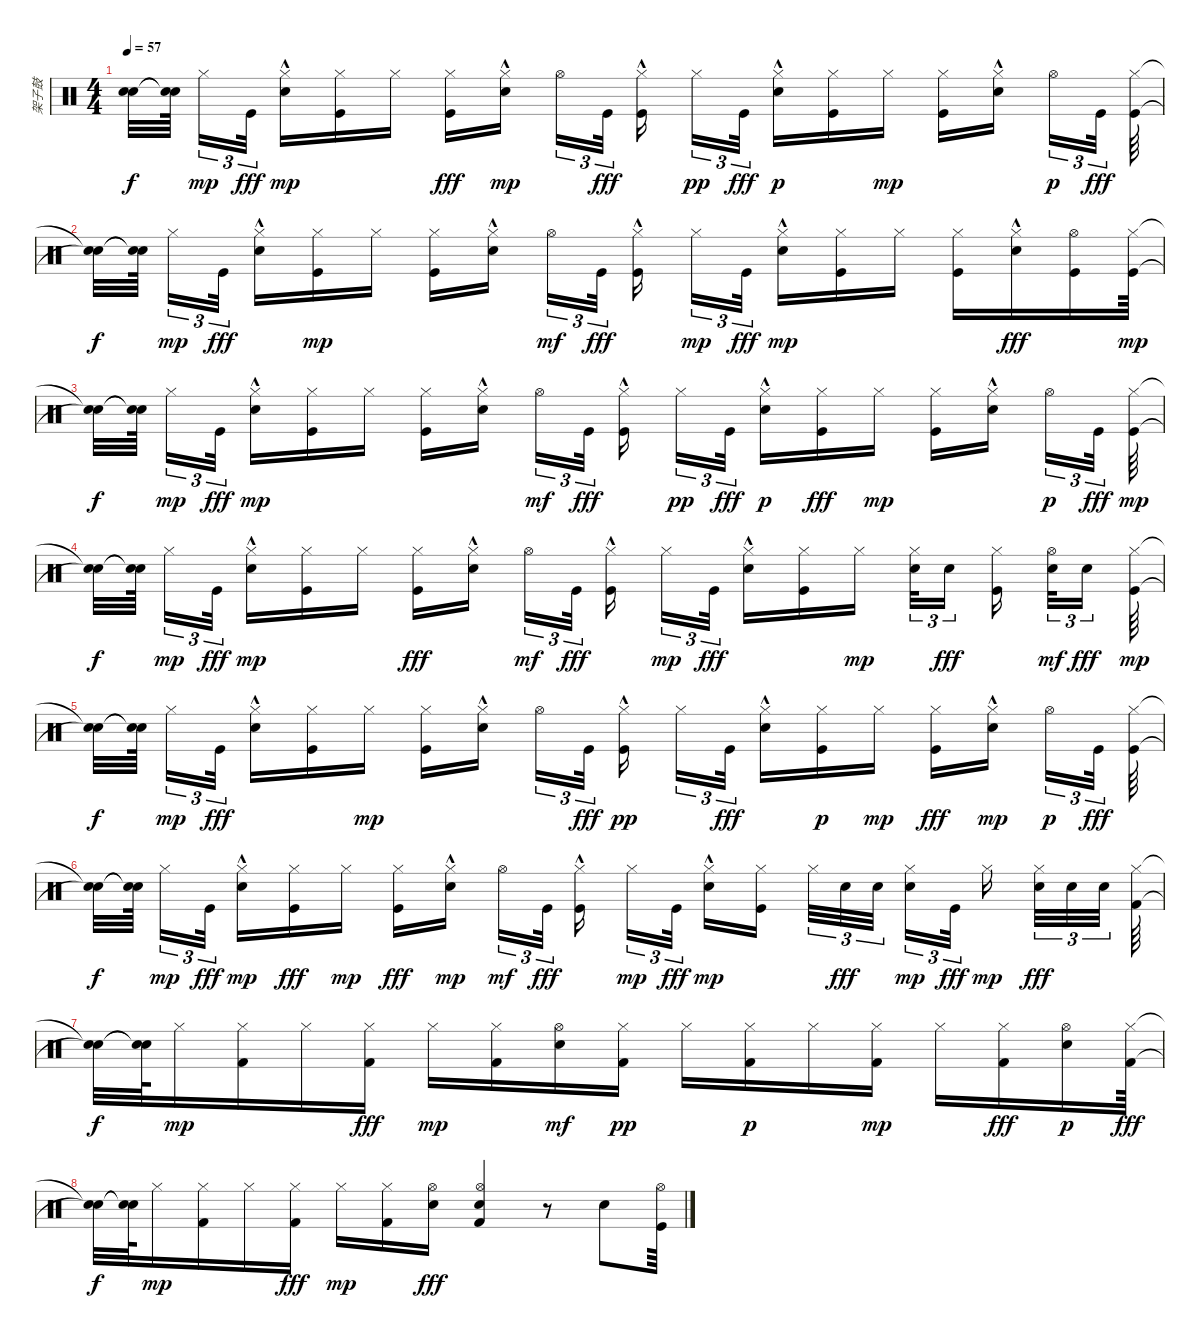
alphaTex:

\track ("架子鼓" "架子鼓") {instrument percussion}
\staff {score}
\articulation defaults
\ts (4 4)
\tempo 57
\clef neutral
\ks c
("Snare (hit)"{t} "Snare (hit)"{t}).32{dy f} ("Snare (hit)"{t} "Snare (hit)"{t}).64 "Hi-Hat (closed)".16{tu (3 2) dy mp} "Kick (hit)".32{tu (3 2) dy fff} ("Electric Snare (hit)"{hac} "Hi-Hat (closed)").16{dy mp} ("Kick (hit)" "Hi-Hat (closed)").16 "Hi-Hat (closed)".16 ("Hi-Hat (closed)" "Kick (hit)").16{dy fff} ("Electric Snare (hit)"{hac} "Hi-Hat (closed)").16{dy mp} "Hi-Hat (open)".16{tu (3 2)} "Kick (hit)".32{tu (3 2) dy fff} ("Hi-Hat (closed)" "Kick (hit)"{hac}).16 "Hi-Hat (closed)".16{tu (3 2) dy pp} "Kick (hit)".32{tu (3 2) dy fff} ("Electric Snare (hit)"{hac} "Hi-Hat (closed)").16{dy p} ("Kick (hit)" "Hi-Hat (closed)").16 "Hi-Hat (closed)".16{dy mp} ("Kick (hit)" "Hi-Hat (closed)").16 ("Electric Snare (hit)"{hac} "Hi-Hat (closed)").16 "Hi-Hat (open)".16{tu (3 2) dy p} "Kick (hit)".32{tu (3 2) dy fff} ("Hi-Hat (closed)" "Kick (hit)").64 |
("Snare (hit)"{t} "Snare (hit)"{t}).32{dy f} ("Snare (hit)"{t} "Snare (hit)"{t}).64 "Hi-Hat (closed)".16{tu (3 2) dy mp} "Kick (hit)".32{tu (3 2) dy fff} ("Hi-Hat (closed)" "Electric Snare (hit)"{hac}).16 ("Kick (hit)" "Hi-Hat (closed)").16{dy mp} "Hi-Hat (closed)".16 ("Kick (hit)" "Hi-Hat (closed)").16 ("Electric Snare (hit)"{hac} "Hi-Hat (closed)").16 "Hi-Hat (open)".16{tu (3 2) dy mf} "Kick (hit)".32{tu (3 2) dy fff} ("Hi-Hat (closed)" "Kick (hit)"{hac}).16 "Hi-Hat (closed)".16{tu (3 2) dy mp} "Kick (hit)".32{tu (3 2) dy fff} ("Electric Snare (hit)"{hac} "Hi-Hat (closed)").16{dy mp} ("Kick (hit)" "Hi-Hat (closed)").16 "Hi-Hat (closed)".16 ("Kick (hit)" "Hi-Hat (closed)").16 ("Hi-Hat (closed)" "Electric Snare (hit)"{hac}).16{dy fff} ("Hi-Hat (open)" "Kick (hit)").16 ("Kick (hit)" "Hi-Hat (closed)").64{dy mp} |
("Snare (hit)"{t} "Snare (hit)"{t}).32{dy f} ("Snare (hit)"{t} "Snare (hit)"{t}).64 "Hi-Hat (closed)".16{tu (3 2) dy mp} "Kick (hit)".32{tu (3 2) dy fff} ("Electric Snare (hit)"{hac} "Hi-Hat (closed)").16{dy mp} ("Kick (hit)" "Hi-Hat (closed)").16 "Hi-Hat (closed)".16 ("Kick (hit)" "Hi-Hat (closed)").16 ("Electric Snare (hit)"{hac} "Hi-Hat (closed)").16 "Hi-Hat (open)".16{tu (3 2) dy mf} "Kick (hit)".32{tu (3 2) dy fff} ("Hi-Hat (closed)" "Kick (hit)"{hac}).16 "Hi-Hat (closed)".16{tu (3 2) dy pp} "Kick (hit)".32{tu (3 2) dy fff} ("Electric Snare (hit)"{hac} "Hi-Hat (closed)").16{dy p} ("Hi-Hat (closed)" "Kick (hit)").16{dy fff} "Hi-Hat (closed)".16{dy mp} ("Kick (hit)" "Hi-Hat (closed)").16 ("Electric Snare (hit)"{hac} "Hi-Hat (closed)").16 "Hi-Hat (open)".16{tu (3 2) dy p} "Kick (hit)".32{tu (3 2) dy fff} ("Kick (hit)" "Hi-Hat (closed)").64{dy mp} |
("Snare (hit)"{t} "Snare (hit)"{t}).32{dy f} ("Snare (hit)"{t} "Snare (hit)"{t}).64 "Hi-Hat (closed)".16{tu (3 2) dy mp} "Kick (hit)".32{tu (3 2) dy fff} ("Electric Snare (hit)"{hac} "Hi-Hat (closed)").16{dy mp} ("Kick (hit)" "Hi-Hat (closed)").16 "Hi-Hat (closed)".16 ("Hi-Hat (closed)" "Kick (hit)").16{dy fff} ("Hi-Hat (closed)" "Electric Snare (hit)"{hac}).16 "Hi-Hat (open)".16{tu (3 2) dy mf} "Kick (hit)".32{tu (3 2) dy fff} ("Hi-Hat (closed)" "Kick (hit)"{hac}).16 "Hi-Hat (closed)".16{tu (3 2) dy mp} "Kick (hit)".32{tu (3 2) dy fff} ("Hi-Hat (closed)" "Electric Snare (hit)"{hac}).16 ("Hi-Hat (closed)" "Kick (hit)").16 "Hi-Hat (closed)".16{dy mp} ("Electric Snare (hit)" "Hi-Hat (closed)").32{tu (3 2)} "Electric Snare (hit)".16{tu (3 2) dy fff} ("Hi-Hat (closed)" "Kick (hit)").16 ("Electric Snare (hit)" "Hi-Hat (open)").32{tu (3 2) dy mf} "Electric Snare (hit)".16{tu (3 2) dy fff} ("Kick (hit)" "Hi-Hat (closed)").64{dy mp} |
("Snare (hit)"{t} "Snare (hit)"{t}).32{dy f} ("Snare (hit)"{t} "Snare (hit)"{t}).64 "Hi-Hat (closed)".16{tu (3 2) dy mp} "Kick (hit)".32{tu (3 2) dy fff} ("Hi-Hat (closed)" "Electric Snare (hit)"{hac}).16 ("Hi-Hat (closed)" "Kick (hit)").16 "Hi-Hat (closed)".16{dy mp} ("Kick (hit)" "Hi-Hat (closed)").16 ("Electric Snare (hit)"{hac} "Hi-Hat (closed)").16 "Hi-Hat (open)".16{tu (3 2)} "Kick (hit)".32{tu (3 2) dy fff} ("Kick (hit)"{hac} "Hi-Hat (closed)").16{dy pp} "Hi-Hat (closed)".16{tu (3 2)} "Kick (hit)".32{tu (3 2) dy fff} ("Hi-Hat (closed)" "Electric Snare (hit)"{hac}).16 ("Kick (hit)" "Hi-Hat (closed)").16{dy p} "Hi-Hat (closed)".16{dy mp} ("Hi-Hat (closed)" "Kick (hit)").16{dy fff} ("Electric Snare (hit)"{hac} "Hi-Hat (closed)").16{dy mp} "Hi-Hat (open)".16{tu (3 2) dy p} "Kick (hit)".32{tu (3 2) dy fff} ("Hi-Hat (closed)" "Kick (hit)").64 |
("Snare (hit)"{t} "Snare (hit)"{t}).32{dy f} ("Snare (hit)"{t} "Snare (hit)"{t}).64 "Hi-Hat (closed)".16{tu (3 2) dy mp} "Kick (hit)".32{tu (3 2) dy fff} ("Electric Snare (hit)"{hac} "Hi-Hat (closed)").16{dy mp} ("Hi-Hat (closed)" "Kick (hit)").16{dy fff} "Hi-Hat (closed)".16{dy mp} ("Hi-Hat (closed)" "Kick (hit)").16{dy fff} ("Electric Snare (hit)"{hac} "Hi-Hat (closed)").16{dy mp} "Hi-Hat (open)".16{tu (3 2) dy mf} "Kick (hit)".32{tu (3 2) dy fff} ("Hi-Hat (closed)" "Kick (hit)"{hac}).16 "Hi-Hat (closed)".16{tu (3 2) dy mp} "Kick (hit)".32{tu (3 2) dy fff} ("Electric Snare (hit)"{hac} "Hi-Hat (closed)").16{dy mp} ("Kick (hit)" "Hi-Hat (closed)").16 "Hi-Hat (closed)".32{tu (3 2)} "Electric Snare (hit)".32{tu (3 2) dy fff} "Electric Snare (hit)".32{tu (3 2)} ("Electric Snare (hit)" "Hi-Hat (closed)").16{tu (3 2) dy mp} "Kick (hit)".32{tu (3 2) dy fff} "Hi-Hat (closed)".16{dy mp} ("Hi-Hat (closed)" "Electric Snare (hit)").32{tu (3 2) dy fff} "Electric Snare (hit)".32{tu (3 2)} "Electric Snare (hit)".32{tu (3 2)} ("Hi-Hat (closed)" "Kick (hit) 2").64 |
("Snare (hit)"{t} "Snare (hit)"{t}).32{dy f} ("Snare (hit)"{t} "Snare (hit)"{t}).64 "Hi-Hat (closed)".16{dy mp} ("Kick (hit) 2" "Hi-Hat (closed)").16 "Hi-Hat (closed)".16 ("Hi-Hat (closed)" "Kick (hit) 2").16{dy fff} "Hi-Hat (closed)".16{dy mp} ("Kick (hit) 2" "Hi-Hat (closed)").16 ("Electric Snare (hit)" "Hi-Hat (open)").16{dy mf} ("Kick (hit) 2" "Hi-Hat (closed)").16{dy pp} "Hi-Hat (closed)".16 ("Kick (hit) 2" "Hi-Hat (closed)").16{dy p} "Hi-Hat (closed)".16 ("Kick (hit) 2" "Hi-Hat (closed)").16{dy mp} "Hi-Hat (closed)".16 ("Hi-Hat (closed)" "Kick (hit) 2").16{dy fff} ("Electric Snare (hit)" "Hi-Hat (open)").16{dy p} ("Hi-Hat (closed)" "Kick (hit) 2").64{dy fff} |
("Snare (hit)"{t} "Snare (hit)"{t}).32{dy f} ("Snare (hit)"{t} "Snare (hit)"{t}).64 "Hi-Hat (closed)".16{dy mp} ("Kick (hit) 2" "Hi-Hat (closed)").16 "Hi-Hat (closed)".16 ("Hi-Hat (closed)" "Kick (hit) 2").16{dy fff} "Hi-Hat (closed)".16{dy mp} ("Kick (hit) 2" "Hi-Hat (closed)").16 ("Hi-Hat (open)" "Electric Snare (hit)").16{dy fff} ("Kick (hit) 2" "Hi-Hat (open)" "Electric Snare (hit)").4 r.8 "Electric Snare (hit)".8 ("Hi-Hat (open)" "Kick (hit)").64
